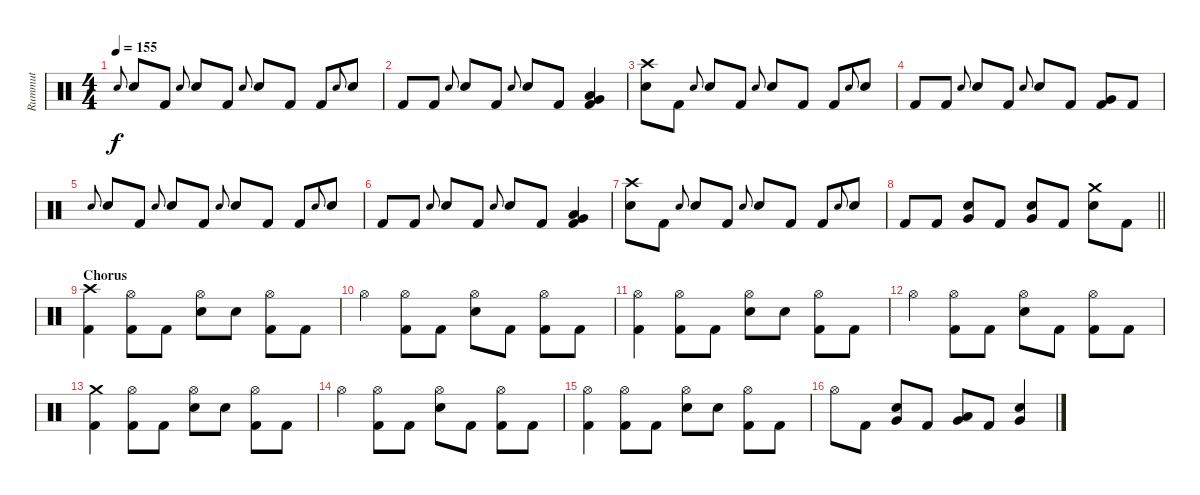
\track ("Rummut" "Rummut") {instrument percussion}
\staff {score}
\articulation defaults
\ts (4 4)
\tempo 155
\clef neutral
\ks c "Electric Snare (hit)".8{gr onbeat dy f} "Electric Snare (hit)".8 "Kick (hit) 2".8 "Electric Snare (hit)".8{gr onbeat} "Electric Snare (hit)".8 "Kick (hit) 2".8 "Electric Snare (hit)".8{gr onbeat} "Electric Snare (hit)".8 "Kick (hit) 2".8 "Kick (hit) 2".8 "Electric Snare (hit)".8{gr onbeat} "Electric Snare (hit)".8
|
"Kick (hit) 2".8 "Kick (hit) 2".8 "Electric Snare (hit)".8{gr onbeat} "Electric Snare (hit)".8 "Kick (hit) 2".8 "Electric Snare (hit)".8{gr onbeat} "Electric Snare (hit)".8 "Kick (hit) 2".8 ("Low Tom (hit)" "Very Low Tom (hit)" "Kick (hit) 2").4 |
("Crash high (hit)" "Electric Snare (hit)").8 "Kick (hit) 2".8 "Electric Snare (hit)".8{gr onbeat} "Electric Snare (hit)".8 "Kick (hit) 2".8 "Electric Snare (hit)".8{gr onbeat} "Electric Snare (hit)".8 "Kick (hit) 2".8 "Kick (hit) 2".8 "Electric Snare (hit)".8{gr onbeat} "Electric Snare (hit)".8 |
"Kick (hit) 2".8 "Kick (hit) 2".8 "Electric Snare (hit)".8{gr onbeat} "Electric Snare (hit)".8 "Kick (hit) 2".8 "Electric Snare (hit)".8{gr onbeat} "Electric Snare (hit)".8 "Kick (hit) 2".8 ("Very Low Tom (hit)" "Kick (hit) 2").8 "Kick (hit) 2".8 |
"Electric Snare (hit)".8{gr onbeat} "Electric Snare (hit)".8 "Kick (hit) 2".8 "Electric Snare (hit)".8{gr onbeat} "Electric Snare (hit)".8 "Kick (hit) 2".8 "Electric Snare (hit)".8{gr onbeat} "Electric Snare (hit)".8 "Kick (hit) 2".8 "Kick (hit) 2".8 "Electric Snare (hit)".8{gr onbeat} "Electric Snare (hit)".8 |
"Kick (hit) 2".8 "Kick (hit) 2".8 "Electric Snare (hit)".8{gr onbeat} "Electric Snare (hit)".8 "Kick (hit) 2".8 "Electric Snare (hit)".8{gr onbeat} "Electric Snare (hit)".8 "Kick (hit) 2".8 ("Low Tom (hit)" "Very Low Tom (hit)" "Kick (hit) 2").4 |
("Crash high (hit)" "Electric Snare (hit)").8 "Kick (hit) 2".8 "Electric Snare (hit)".8{gr onbeat} "Electric Snare (hit)".8 "Kick (hit) 2".8 "Electric Snare (hit)".8{gr onbeat} "Electric Snare (hit)".8 "Kick (hit) 2".8 "Kick (hit) 2".8 "Electric Snare (hit)".8{gr onbeat} "Electric Snare (hit)".8 |
\barLineRight lightlight "Kick (hit) 2".8 "Kick (hit) 2".8
("Very Low Tom (hit)" "Electric Snare (hit)").8 "Kick (hit) 2".8 ("Very Low Tom (hit)" "Electric Snare (hit)").8 "Kick (hit) 2".8 ("Crash medium (hit)" "Electric Snare (hit)").8 "Kick (hit) 2".8 |
\section ("" "Chorus")
("Crash high (hit)" "Kick (hit) 2").4 ("Hi-Hat (open)" "Kick (hit) 2").8 "Kick (hit) 2".8 ("Hi-Hat (open)" "Electric Snare (hit)").8 "Electric Snare (hit)".8 ("Hi-Hat (open)" "Kick (hit) 2").8 "Kick (hit) 2".8 |
"Hi-Hat (open)".4 ("Hi-Hat (open)" "Kick (hit) 2").8 "Kick (hit) 2".8 ("Hi-Hat (open)" "Electric Snare (hit)").8 "Kick (hit) 2".8 ("Hi-Hat (open)" "Kick (hit) 2").8 "Kick (hit) 2".8 |
("Hi-Hat (open)" "Kick (hit) 2").4 ("Hi-Hat (open)" "Kick (hit) 2").8 "Kick (hit) 2".8 ("Hi-Hat (open)" "Electric Snare (hit)").8 "Electric Snare (hit)".8 ("Hi-Hat (open)" "Kick (hit) 2").8 "Kick (hit) 2".8 |
"Hi-Hat (open)".4 ("Hi-Hat (open)" "Kick (hit) 2").8 "Kick (hit) 2".8 ("Hi-Hat (open)" "Electric Snare (hit)").8 "Kick (hit) 2".8 ("Hi-Hat (open)" "Kick (hit) 2").8 "Kick (hit) 2".8 |
("Crash medium (hit)" "Kick (hit) 2").4 ("Hi-Hat (open)" "Kick (hit) 2").8 "Kick (hit) 2".8 ("Hi-Hat (open)" "Electric Snare (hit)").8 "Electric Snare (hit)".8 ("Hi-Hat (open)" "Kick (hit) 2").8 "Kick (hit) 2".8 |
"Hi-Hat (open)".4 ("Hi-Hat (open)" "Kick (hit) 2").8 "Kick (hit) 2".8 ("Hi-Hat (open)" "Electric Snare (hit)").8 "Kick (hit) 2".8 ("Hi-Hat (open)" "Kick (hit) 2").8 "Kick (hit) 2".8 |
("Hi-Hat (open)" "Kick (hit) 2").4 ("Hi-Hat (open)" "Kick (hit) 2").8 "Kick (hit) 2".8 ("Hi-Hat (open)" "Electric Snare (hit)").8 "Electric Snare (hit)".8 ("Hi-Hat (open)" "Kick (hit) 2").8 "Kick (hit) 2".8 |
"Hi-Hat (open)".8 "Kick (hit) 2".8 ("Very Low Tom (hit)" "Electric Snare (hit)").8 "Kick (hit) 2".8 ("Low Tom (hit)" "Very Low Tom (hit)").8 "Kick (hit) 2".8 ("Very Low Tom (hit)" "Electric Snare (hit)").4
